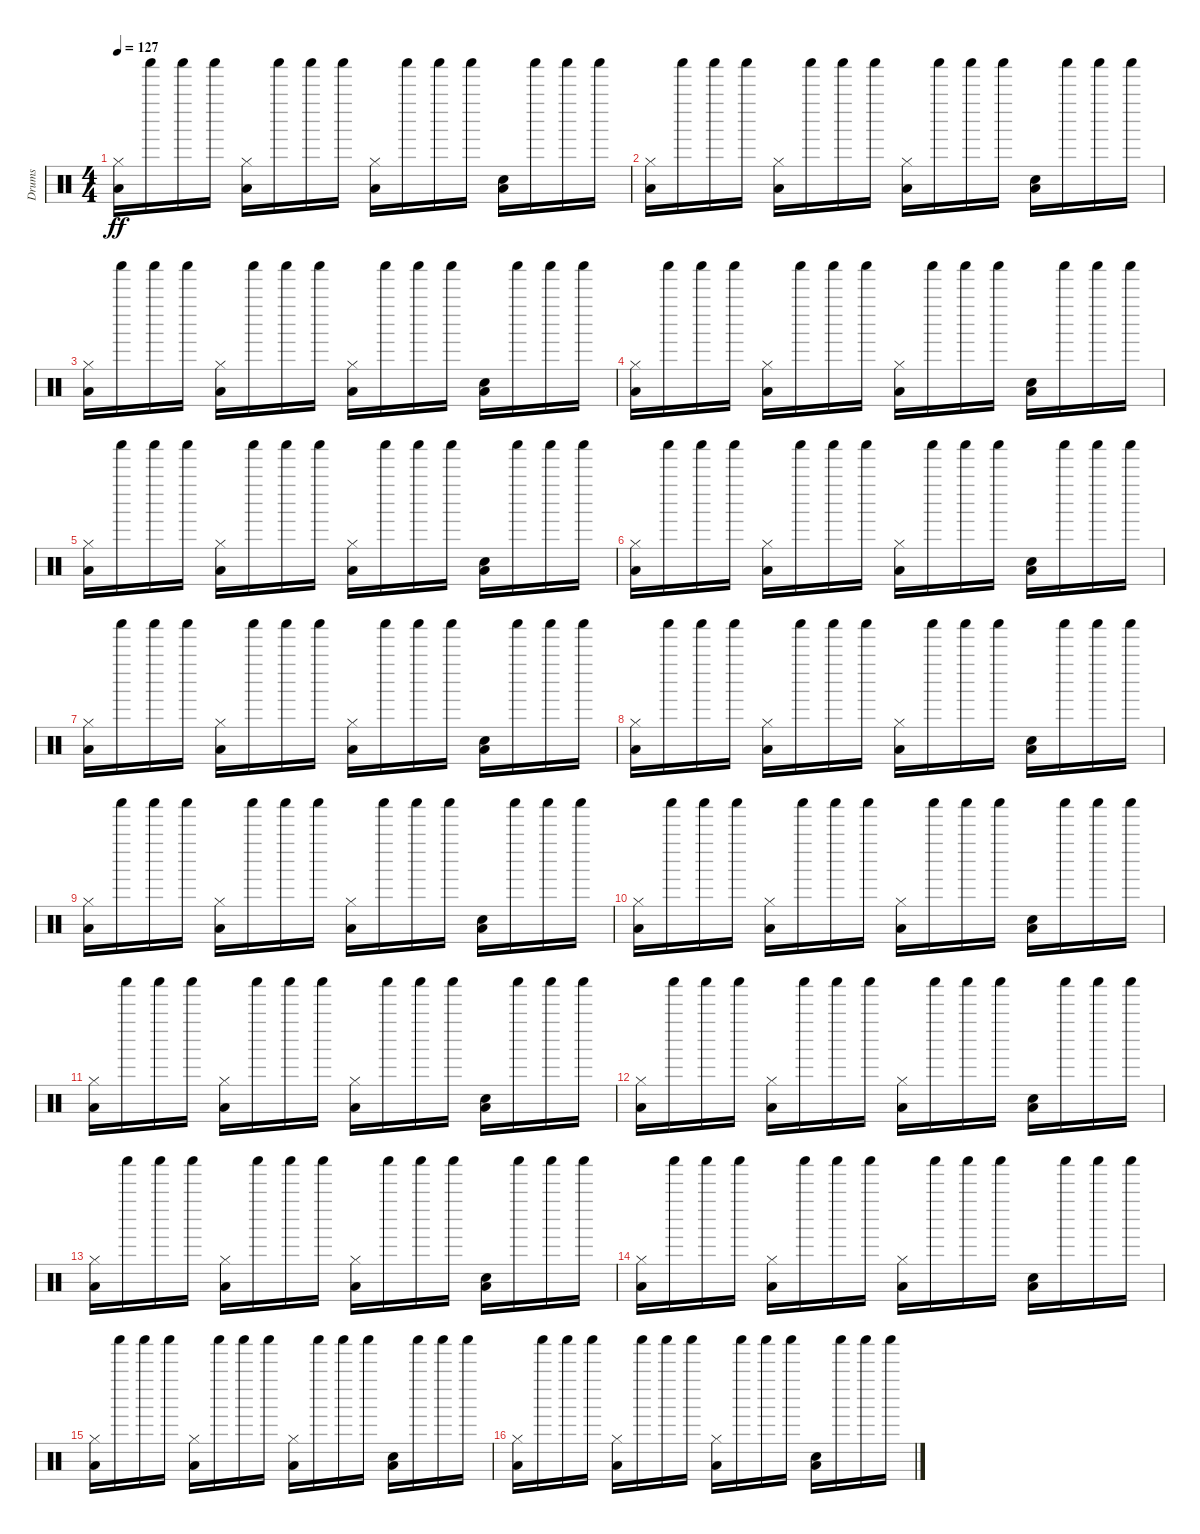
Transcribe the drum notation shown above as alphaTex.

\track ("Drums" "Drums") {instrument percussion}
\staff {score}
\articulation defaults
\ts (4 4)
\tempo 127
\clef neutral
\ks c
("Hi-Hat (closed)" "Low Tom (hit)").16{dy ff} "Shaker (hit)".16 "Shaker (hit)".16 "Shaker (hit)".16 ("Hi-Hat (closed)" "Low Tom (hit)").16 "Shaker (hit)".16 "Shaker (hit)".16 "Shaker (hit)".16 ("Hi-Hat (closed)" "Low Tom (hit)").16 "Shaker (hit)".16 "Shaker (hit)".16 "Shaker (hit)".16 ("Hand Clap (hit)" "Low Tom (hit)").16 "Shaker (hit)".16 "Shaker (hit)".16 "Shaker (hit)".16 |
("Hi-Hat (closed)" "Low Tom (hit)").16 "Shaker (hit)".16 "Shaker (hit)".16 "Shaker (hit)".16 ("Hi-Hat (closed)" "Low Tom (hit)").16 "Shaker (hit)".16 "Shaker (hit)".16 "Shaker (hit)".16 ("Hi-Hat (closed)" "Low Tom (hit)").16 "Shaker (hit)".16 "Shaker (hit)".16 "Shaker (hit)".16 ("Hand Clap (hit)" "Low Tom (hit)").16 "Shaker (hit)".16 "Shaker (hit)".16 "Shaker (hit)".16 |
("Hi-Hat (closed)" "Low Tom (hit)").16 "Shaker (hit)".16 "Shaker (hit)".16 "Shaker (hit)".16 ("Hi-Hat (closed)" "Low Tom (hit)").16 "Shaker (hit)".16 "Shaker (hit)".16 "Shaker (hit)".16 ("Hi-Hat (closed)" "Low Tom (hit)").16 "Shaker (hit)".16 "Shaker (hit)".16 "Shaker (hit)".16 ("Hand Clap (hit)" "Low Tom (hit)").16 "Shaker (hit)".16 "Shaker (hit)".16 "Shaker (hit)".16 |
("Hi-Hat (closed)" "Low Tom (hit)").16 "Shaker (hit)".16 "Shaker (hit)".16 "Shaker (hit)".16 ("Hi-Hat (closed)" "Low Tom (hit)").16 "Shaker (hit)".16 "Shaker (hit)".16 "Shaker (hit)".16 ("Hi-Hat (closed)" "Low Tom (hit)").16 "Shaker (hit)".16 "Shaker (hit)".16 "Shaker (hit)".16 ("Hand Clap (hit)" "Low Tom (hit)").16 "Shaker (hit)".16 "Shaker (hit)".16 "Shaker (hit)".16 |
("Hi-Hat (closed)" "Low Tom (hit)").16 "Shaker (hit)".16 "Shaker (hit)".16 "Shaker (hit)".16 ("Hi-Hat (closed)" "Low Tom (hit)").16 "Shaker (hit)".16 "Shaker (hit)".16 "Shaker (hit)".16 ("Hi-Hat (closed)" "Low Tom (hit)").16 "Shaker (hit)".16 "Shaker (hit)".16 "Shaker (hit)".16 ("Hand Clap (hit)" "Low Tom (hit)").16 "Shaker (hit)".16 "Shaker (hit)".16 "Shaker (hit)".16 |
("Hi-Hat (closed)" "Low Tom (hit)").16 "Shaker (hit)".16 "Shaker (hit)".16 "Shaker (hit)".16 ("Hi-Hat (closed)" "Low Tom (hit)").16 "Shaker (hit)".16 "Shaker (hit)".16 "Shaker (hit)".16 ("Hi-Hat (closed)" "Low Tom (hit)").16 "Shaker (hit)".16 "Shaker (hit)".16 "Shaker (hit)".16 ("Hand Clap (hit)" "Low Tom (hit)").16 "Shaker (hit)".16 "Shaker (hit)".16 "Shaker (hit)".16 |
("Hi-Hat (closed)" "Low Tom (hit)").16 "Shaker (hit)".16 "Shaker (hit)".16 "Shaker (hit)".16 ("Hi-Hat (closed)" "Low Tom (hit)").16 "Shaker (hit)".16 "Shaker (hit)".16 "Shaker (hit)".16 ("Hi-Hat (closed)" "Low Tom (hit)").16 "Shaker (hit)".16 "Shaker (hit)".16 "Shaker (hit)".16 ("Hand Clap (hit)" "Low Tom (hit)").16 "Shaker (hit)".16 "Shaker (hit)".16 "Shaker (hit)".16 |
("Hi-Hat (closed)" "Low Tom (hit)").16 "Shaker (hit)".16 "Shaker (hit)".16 "Shaker (hit)".16 ("Hi-Hat (closed)" "Low Tom (hit)").16 "Shaker (hit)".16 "Shaker (hit)".16 "Shaker (hit)".16 ("Hi-Hat (closed)" "Low Tom (hit)").16 "Shaker (hit)".16 "Shaker (hit)".16 "Shaker (hit)".16 ("Hand Clap (hit)" "Low Tom (hit)").16 "Shaker (hit)".16 "Shaker (hit)".16 "Shaker (hit)".16 |
("Hi-Hat (closed)" "Low Tom (hit)").16 "Shaker (hit)".16 "Shaker (hit)".16 "Shaker (hit)".16 ("Hi-Hat (closed)" "Low Tom (hit)").16 "Shaker (hit)".16 "Shaker (hit)".16 "Shaker (hit)".16 ("Hi-Hat (closed)" "Low Tom (hit)").16 "Shaker (hit)".16 "Shaker (hit)".16 "Shaker (hit)".16 ("Hand Clap (hit)" "Low Tom (hit)").16 "Shaker (hit)".16 "Shaker (hit)".16 "Shaker (hit)".16 |
("Hi-Hat (closed)" "Low Tom (hit)").16 "Shaker (hit)".16 "Shaker (hit)".16 "Shaker (hit)".16 ("Hi-Hat (closed)" "Low Tom (hit)").16 "Shaker (hit)".16 "Shaker (hit)".16 "Shaker (hit)".16 ("Hi-Hat (closed)" "Low Tom (hit)").16 "Shaker (hit)".16 "Shaker (hit)".16 "Shaker (hit)".16 ("Hand Clap (hit)" "Low Tom (hit)").16 "Shaker (hit)".16 "Shaker (hit)".16 "Shaker (hit)".16 |
("Hi-Hat (closed)" "Low Tom (hit)").16 "Shaker (hit)".16 "Shaker (hit)".16 "Shaker (hit)".16 ("Hi-Hat (closed)" "Low Tom (hit)").16 "Shaker (hit)".16 "Shaker (hit)".16 "Shaker (hit)".16 ("Hi-Hat (closed)" "Low Tom (hit)").16 "Shaker (hit)".16 "Shaker (hit)".16 "Shaker (hit)".16 ("Hand Clap (hit)" "Low Tom (hit)").16 "Shaker (hit)".16 "Shaker (hit)".16 "Shaker (hit)".16 |
("Hi-Hat (closed)" "Low Tom (hit)").16 "Shaker (hit)".16 "Shaker (hit)".16 "Shaker (hit)".16 ("Hi-Hat (closed)" "Low Tom (hit)").16 "Shaker (hit)".16 "Shaker (hit)".16 "Shaker (hit)".16 ("Hi-Hat (closed)" "Low Tom (hit)").16 "Shaker (hit)".16 "Shaker (hit)".16 "Shaker (hit)".16 ("Hand Clap (hit)" "Low Tom (hit)").16 "Shaker (hit)".16 "Shaker (hit)".16 "Shaker (hit)".16 |
("Hi-Hat (closed)" "Low Tom (hit)").16 "Shaker (hit)".16 "Shaker (hit)".16 "Shaker (hit)".16 ("Hi-Hat (closed)" "Low Tom (hit)").16 "Shaker (hit)".16 "Shaker (hit)".16 "Shaker (hit)".16 ("Hi-Hat (closed)" "Low Tom (hit)").16 "Shaker (hit)".16 "Shaker (hit)".16 "Shaker (hit)".16 ("Hand Clap (hit)" "Low Tom (hit)").16 "Shaker (hit)".16 "Shaker (hit)".16 "Shaker (hit)".16 |
("Hi-Hat (closed)" "Low Tom (hit)").16 "Shaker (hit)".16 "Shaker (hit)".16 "Shaker (hit)".16 ("Hi-Hat (closed)" "Low Tom (hit)").16 "Shaker (hit)".16 "Shaker (hit)".16 "Shaker (hit)".16 ("Hi-Hat (closed)" "Low Tom (hit)").16 "Shaker (hit)".16 "Shaker (hit)".16 "Shaker (hit)".16 ("Hand Clap (hit)" "Low Tom (hit)").16 "Shaker (hit)".16 "Shaker (hit)".16 "Shaker (hit)".16 |
("Hi-Hat (closed)" "Low Tom (hit)").16 "Shaker (hit)".16 "Shaker (hit)".16 "Shaker (hit)".16 ("Hi-Hat (closed)" "Low Tom (hit)").16 "Shaker (hit)".16 "Shaker (hit)".16 "Shaker (hit)".16 ("Hi-Hat (closed)" "Low Tom (hit)").16 "Shaker (hit)".16 "Shaker (hit)".16 "Shaker (hit)".16 ("Hand Clap (hit)" "Low Tom (hit)").16 "Shaker (hit)".16 "Shaker (hit)".16 "Shaker (hit)".16 |
("Hi-Hat (closed)" "Low Tom (hit)").16 "Shaker (hit)".16 "Shaker (hit)".16 "Shaker (hit)".16 ("Hi-Hat (closed)" "Low Tom (hit)").16 "Shaker (hit)".16 "Shaker (hit)".16 "Shaker (hit)".16 ("Hi-Hat (closed)" "Low Tom (hit)").16 "Shaker (hit)".16 "Shaker (hit)".16 "Shaker (hit)".16 ("Hand Clap (hit)" "Low Tom (hit)").16 "Shaker (hit)".16 "Shaker (hit)".16 "Shaker (hit)".16
